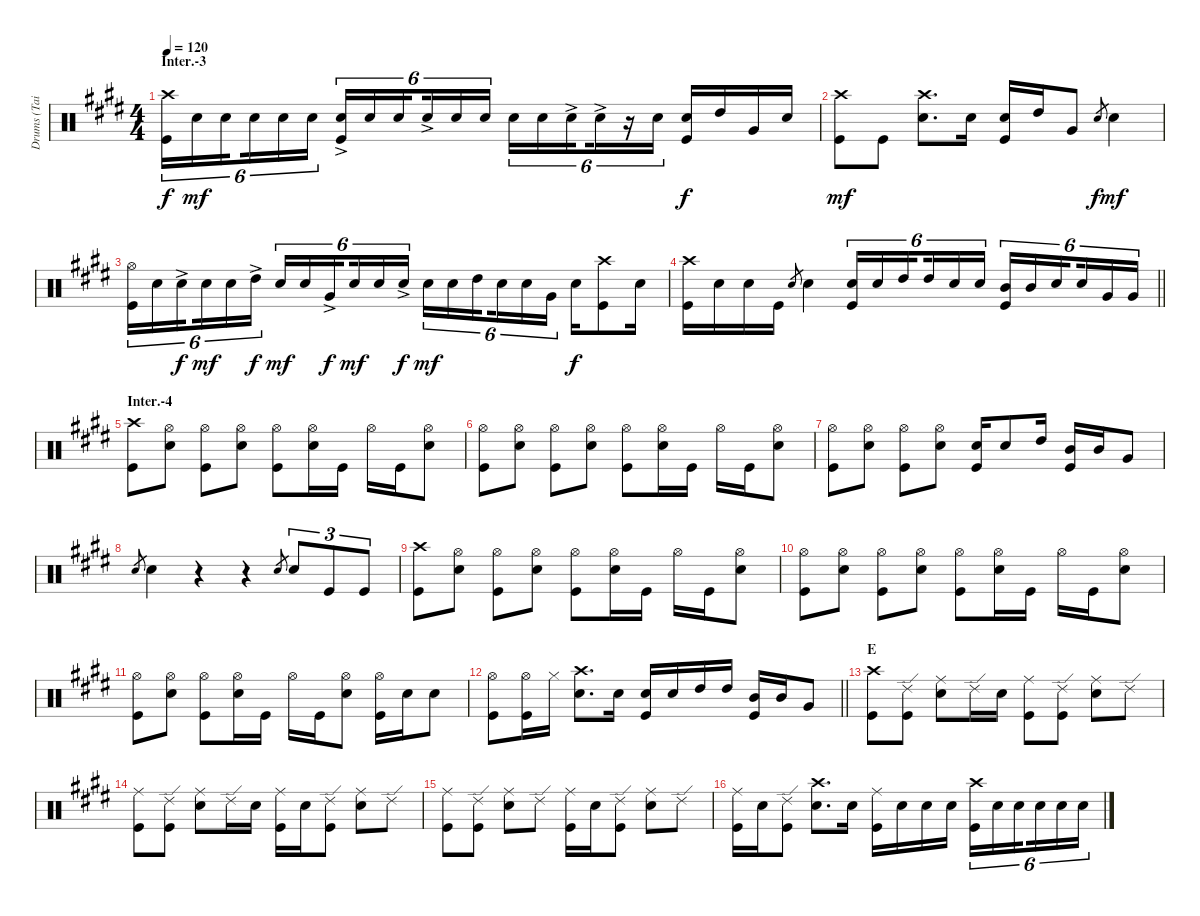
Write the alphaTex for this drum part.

\track ("Drums (Tainaka Ritsu)" "Drums (Tai") {instrument percussion}
\staff {score}
\articulation defaults
\ts (4 4)
\section ("" "Inter.-3")
\tempo 120
\clef neutral
\ks e
("Crash high (hit)" "Kick (hit)").16{tu (6 4) dy f} "Snare (hit) 2".16{tu (6 4) dy mf} "Snare (hit) 2".16{tu (6 4) beam splitsecondary} "Snare (hit) 2".16{tu (6 4)} "Snare (hit) 2".16{tu (6 4)} "Snare (hit) 2".16{tu (6 4)} ("Snare (hit) 2"{ac} "Kick (hit)").16{tu (6 4)} "Snare (hit) 2".16{tu (6 4)} "Snare (hit) 2".16{tu (6 4) beam splitsecondary} "Snare (hit) 2"{ac}.16{tu (6 4)} "Snare (hit) 2".16{tu (6 4)} "Snare (hit) 2".16{tu (6 4)} "Snare (hit) 2".16{tu (6 4)} "Snare (hit) 2".16{tu (6 4)} "Snare (hit) 2"{ac}.16{tu (6 4) beam splitsecondary} "Snare (hit) 2"{ac}.16{tu (6 4)} r.16{tu (6 4)} "Snare (hit) 2".16{tu (6 4)} ("Snare (hit) 2" "Kick (hit)").16{dy f} "High Tom (hit)".16 "Very Low Tom (hit)".16 "Snare (hit) 2".16 |
("Crash high (hit)" "Kick (hit)").8{dy mf} "Kick (hit)".8 ("Crash high (hit)" "Snare (hit) 2").8{d} "Snare (hit) 2".16 ("Snare (hit) 2" "Kick (hit)").16 "High Tom (hit)".16 "Very Low Tom (hit)".8 "Snare (hit) 2".8{gr dy f} "Snare (hit) 2".4{dy mf} |
("Hi-Hat (open)" "Kick (hit)").16{tu (6 4)} "Snare (hit) 2".16{tu (6 4)} "Snare (hit) 2"{ac}.16{tu (6 4) dy f beam splitsecondary} "Snare (hit) 2".16{tu (6 4) dy mf} "Snare (hit) 2".16{tu (6 4)} "High Tom (hit)"{ac}.16{tu (6 4) dy f} "Snare (hit) 2".16{tu (6 4) dy mf} "Snare (hit) 2".16{tu (6 4)} "Very Low Tom (hit)"{ac}.16{tu (6 4) dy f beam splitsecondary} "Snare (hit) 2".16{tu (6 4) dy mf} "Snare (hit) 2".16{tu (6 4)} "Snare (hit) 2"{ac}.16{tu (6 4) dy f} "Snare (hit) 2".16{tu (6 4) dy mf} "Snare (hit) 2".16{tu (6 4)} "High Tom (hit)".16{tu (6 4) beam splitsecondary} "Snare (hit) 2".16{tu (6 4)} "Snare (hit) 2".16{tu (6 4)} "Very Low Tom (hit)".16{tu (6 4)} "Snare (hit) 2".16{dy f} ("Crash high (hit)" "Kick (hit)").8 "Snare (hit) 2".16 |
\barLineRight lightlight
("Crash high (hit)" "Kick (hit)").16 "Snare (hit) 2".16 "Snare (hit) 2".16 "Kick (hit)".16 "Snare (hit) 2".8{gr} "Snare (hit) 2".4 ("Snare (hit) 2" "Kick (hit)").16{tu (6 4)} "Snare (hit) 2".16{tu (6 4)} "High Tom (hit)".16{tu (6 4) beam splitsecondary} "High Tom (hit)".16{tu (6 4)} "Snare (hit) 2".16{tu (6 4)} "Snare (hit) 2".16{tu (6 4)} ("Mid Tom (hit)" "Kick (hit)").16{tu (6 4)} "Mid Tom (hit)".16{tu (6 4)} "Snare (hit) 2".16{tu (6 4) beam splitsecondary} "Snare (hit) 2".16{tu (6 4)} "Very Low Tom (hit)".16{tu (6 4)} "Very Low Tom (hit)".16{tu (6 4)} |
\section ("" "Inter.-4")
("Crash high (hit)" "Kick (hit)").8 ("Hi-Hat (open)" "Snare (hit) 2").8 ("Hi-Hat (open)" "Kick (hit)").8 ("Hi-Hat (open)" "Snare (hit) 2").8 ("Hi-Hat (open)" "Kick (hit)").8 ("Hi-Hat (open)" "Snare (hit) 2").16 "Kick (hit)".16 "Hi-Hat (open)".16 "Kick (hit)".16 ("Hi-Hat (open)" "Snare (hit) 2").8 |
("Hi-Hat (open)" "Kick (hit)").8 ("Hi-Hat (open)" "Snare (hit) 2").8 ("Hi-Hat (open)" "Kick (hit)").8 ("Hi-Hat (open)" "Snare (hit) 2").8 ("Hi-Hat (open)" "Kick (hit)").8 ("Hi-Hat (open)" "Snare (hit) 2").16 "Kick (hit)".16 "Hi-Hat (open)".16 "Kick (hit)".16 ("Hi-Hat (open)" "Snare (hit) 2").8 |
("Hi-Hat (open)" "Kick (hit)").8 ("Hi-Hat (open)" "Snare (hit) 2").8 ("Hi-Hat (open)" "Kick (hit)").8 ("Hi-Hat (open)" "Snare (hit) 2").8 ("Snare (hit) 2" "Kick (hit)").16 "Snare (hit) 2".8 "High Tom (hit)".16 ("Mid Tom (hit)" "Kick (hit)").16 "Mid Tom (hit)".16 "Very Low Tom (hit)".8 |
"Snare (hit) 2".8{gr} "Snare (hit) 2".4 r.4 r.4 "Snare (hit) 2".8{gr} "Snare (hit) 2".8{tu (3 2)} "Kick (hit)".8{tu (3 2)} "Kick (hit)".8{tu (3 2)} |
("Crash high (hit)" "Kick (hit)").8 ("Hi-Hat (open)" "Snare (hit) 2").8 ("Hi-Hat (open)" "Kick (hit)").8 ("Hi-Hat (open)" "Snare (hit) 2").8 ("Hi-Hat (open)" "Kick (hit)").8 ("Hi-Hat (open)" "Snare (hit) 2").16 "Kick (hit)".16 "Hi-Hat (open)".16 "Kick (hit)".16 ("Hi-Hat (open)" "Snare (hit) 2").8 |
("Hi-Hat (open)" "Kick (hit)").8 ("Hi-Hat (open)" "Snare (hit) 2").8 ("Hi-Hat (open)" "Kick (hit)").8 ("Hi-Hat (open)" "Snare (hit) 2").8 ("Hi-Hat (open)" "Kick (hit)").8 ("Hi-Hat (open)" "Snare (hit) 2").16 "Kick (hit)".16 "Hi-Hat (open)".16 "Kick (hit)".16 ("Hi-Hat (open)" "Snare (hit) 2").8 |
("Hi-Hat (open)" "Kick (hit)").8 ("Hi-Hat (open)" "Snare (hit) 2").8 ("Hi-Hat (open)" "Kick (hit)").8 ("Hi-Hat (open)" "Snare (hit) 2").16 "Kick (hit)".16 "Hi-Hat (open)".16 "Kick (hit)".16 ("Hi-Hat (open)" "Snare (hit) 2").8 ("Hi-Hat (open)" "Kick (hit)").16 "Snare (hit) 2".16 "Snare (hit) 2".8 |
\barLineRight lightlight
("Hi-Hat (open)" "Kick (hit)").8 ("Hi-Hat (open)" "Kick (hit)").16 "Hi-Hat (closed)".16 ("Snare (hit) 2" "Crash high (hit)").8{d} "Snare (hit) 2".16 ("Snare (hit) 2" "Kick (hit)").16 "Snare (hit) 2".16 "High Tom (hit)".16 "High Tom (hit)".16 ("Mid Tom (hit)" "Kick (hit)").16 "Mid Tom (hit)".16 "Very Low Tom (hit)".8 |
\section ("" "E")
("Crash high (hit)" "Kick (hit)").8 ("Ride (edge) 2" "Kick (hit)").8 ("Ride (middle)" "Snare (hit) 2").8 "Ride (edge) 2".16 "Snare (hit) 2".16 ("Ride (middle)" "Kick (hit)").8 ("Ride (edge) 2" "Kick (hit)").8 ("Ride (middle)" "Snare (hit) 2").8 "Ride (edge) 2".8 |
("Ride (middle)" "Kick (hit)").8 ("Ride (edge) 2" "Kick (hit)").8 ("Ride (middle)" "Snare (hit) 2").8 "Ride (edge) 2".16 "Snare (hit) 2".16 ("Ride (middle)" "Kick (hit)").16 "Snare (hit) 2".16 ("Ride (edge) 2" "Kick (hit)").8 ("Ride (middle)" "Snare (hit) 2").8 "Ride (edge) 2".8 |
("Ride (middle)" "Kick (hit)").8 ("Ride (edge) 2" "Kick (hit)").8 ("Ride (middle)" "Snare (hit) 2").8 "Ride (edge) 2".8 ("Ride (middle)" "Kick (hit)").16 "Snare (hit) 2".16 ("Ride (edge) 2" "Kick (hit)").8 ("Ride (middle)" "Snare (hit) 2").8 "Ride (edge) 2".8 |
("Ride (middle)" "Kick (hit)").16 "Snare (hit) 2".16 ("Ride (edge) 2" "Kick (hit)").8 ("Crash high (hit)" "Snare (hit) 2").8{d} "Snare (hit) 2".16 ("Ride (middle)" "Kick (hit)").16 "Snare (hit) 2".16 "Snare (hit) 2".16 "Snare (hit) 2".16 ("Crash high (hit)" "Kick (hit)").16{tu (6 4)} "Snare (hit) 2".16{tu (6 4)} "Snare (hit) 2".16{tu (6 4) beam splitsecondary} "Snare (hit) 2".16{tu (6 4)} "Snare (hit) 2".16{tu (6 4)} "Snare (hit) 2".16{tu (6 4)}
